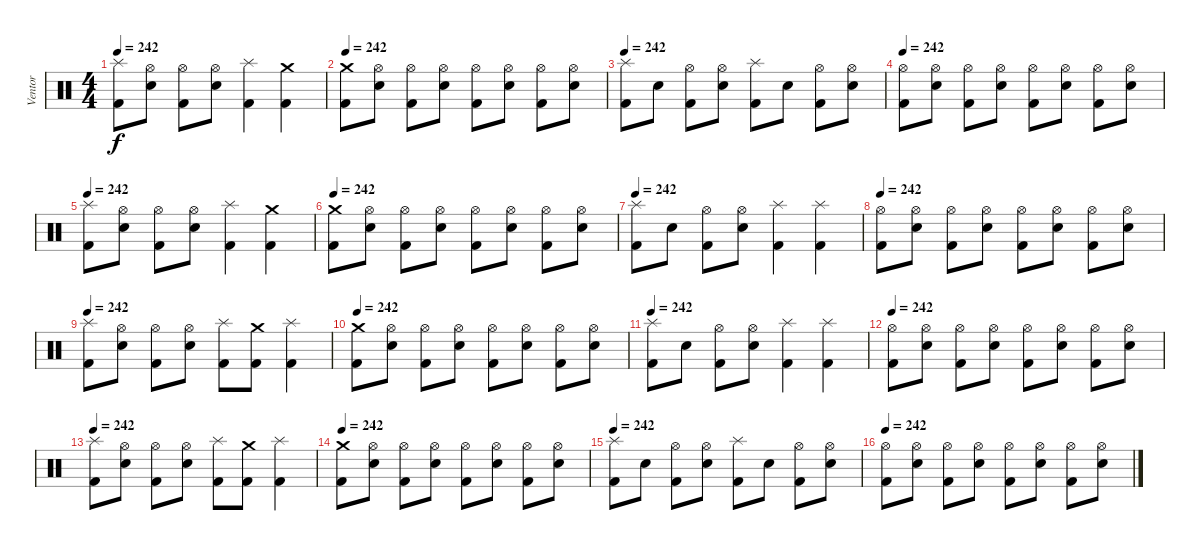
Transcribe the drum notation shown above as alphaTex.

\track ("Ventor" "Ventor") {instrument percussion}
\staff {score}
\articulation defaults
\ts (4 4)
\tempo 242
\clef neutral
\ks c
("Splash (hit)" "Kick (hit) 2").8{dy f} ("Hi-Hat (open)" "Snare (hit) 2").8 ("Hi-Hat (open)" "Kick (hit) 2").8 ("Hi-Hat (open)" "Snare (hit) 2").8 ("Splash (hit)" "Kick (hit) 2").4 ("Crash medium (hit)" "Kick (hit) 2").4 |
\tempo 242
("Crash medium (hit)" "Kick (hit) 2").8 ("Hi-Hat (open)" "Snare (hit) 2").8 ("Hi-Hat (open)" "Kick (hit) 2").8 ("Hi-Hat (open)" "Snare (hit) 2").8 ("Hi-Hat (open)" "Kick (hit) 2").8 ("Hi-Hat (open)" "Snare (hit) 2").8 ("Hi-Hat (open)" "Kick (hit) 2").8 ("Hi-Hat (open)" "Snare (hit) 2").8 |
\tempo 242
("Splash (hit)" "Kick (hit) 2").8 "Snare (hit) 2".8 ("Hi-Hat (open)" "Kick (hit) 2").8 ("Hi-Hat (open)" "Snare (hit) 2").8 ("Splash (hit)" "Kick (hit) 2").8 "Snare (hit) 2".8 ("Hi-Hat (open)" "Kick (hit) 2").8 ("Hi-Hat (open)" "Snare (hit) 2").8 |
\tempo 242
("Hi-Hat (open)" "Kick (hit) 2").8 ("Hi-Hat (open)" "Snare (hit) 2").8 ("Hi-Hat (open)" "Kick (hit) 2").8 ("Hi-Hat (open)" "Snare (hit) 2").8 ("Hi-Hat (open)" "Kick (hit) 2").8 ("Hi-Hat (open)" "Snare (hit) 2").8 ("Hi-Hat (open)" "Kick (hit) 2").8 ("Hi-Hat (open)" "Snare (hit) 2").8 |
\tempo 242
("Splash (hit)" "Kick (hit) 2").8 ("Hi-Hat (open)" "Snare (hit) 2").8 ("Hi-Hat (open)" "Kick (hit) 2").8 ("Hi-Hat (open)" "Snare (hit) 2").8 ("Splash (hit)" "Kick (hit) 2").4 ("Crash medium (hit)" "Kick (hit) 2").4 |
\tempo 242
("Crash medium (hit)" "Kick (hit) 2").8 ("Hi-Hat (open)" "Snare (hit) 2").8 ("Hi-Hat (open)" "Kick (hit) 2").8 ("Hi-Hat (open)" "Snare (hit) 2").8 ("Hi-Hat (open)" "Kick (hit) 2").8 ("Hi-Hat (open)" "Snare (hit) 2").8 ("Hi-Hat (open)" "Kick (hit) 2").8 ("Hi-Hat (open)" "Snare (hit) 2").8 |
\tempo 242
("Splash (hit)" "Kick (hit) 2").8 "Snare (hit) 2".8 ("Hi-Hat (open)" "Kick (hit) 2").8 ("Hi-Hat (open)" "Snare (hit) 2").8 ("Splash (hit)" "Kick (hit) 2").4 ("Splash (hit)" "Kick (hit) 2").4 |
\tempo 242
("Hi-Hat (open)" "Kick (hit) 2").8 ("Hi-Hat (open)" "Snare (hit) 2").8 ("Hi-Hat (open)" "Kick (hit) 2").8 ("Hi-Hat (open)" "Snare (hit) 2").8 ("Hi-Hat (open)" "Kick (hit) 2").8 ("Hi-Hat (open)" "Snare (hit) 2").8 ("Hi-Hat (open)" "Kick (hit) 2").8 ("Hi-Hat (open)" "Snare (hit) 2").8 |
\tempo 242
("Splash (hit)" "Kick (hit) 2").8 ("Hi-Hat (open)" "Snare (hit) 2").8 ("Hi-Hat (open)" "Kick (hit) 2").8 ("Hi-Hat (open)" "Snare (hit) 2").8 ("Splash (hit)" "Kick (hit) 2").8 ("Crash medium (hit)" "Kick (hit) 2").8 ("Splash (hit)" "Kick (hit) 2").4 |
\tempo 242
("Crash medium (hit)" "Kick (hit) 2").8 ("Hi-Hat (open)" "Snare (hit) 2").8 ("Hi-Hat (open)" "Kick (hit) 2").8 ("Hi-Hat (open)" "Snare (hit) 2").8 ("Hi-Hat (open)" "Kick (hit) 2").8 ("Hi-Hat (open)" "Snare (hit) 2").8 ("Hi-Hat (open)" "Kick (hit) 2").8 ("Hi-Hat (open)" "Snare (hit) 2").8 |
\tempo 242
("Splash (hit)" "Kick (hit) 2").8 "Snare (hit) 2".8 ("Hi-Hat (open)" "Kick (hit) 2").8 ("Hi-Hat (open)" "Snare (hit) 2").8 ("Splash (hit)" "Kick (hit) 2").4 ("Splash (hit)" "Kick (hit) 2").4 |
\tempo 242
("Hi-Hat (open)" "Kick (hit) 2").8 ("Hi-Hat (open)" "Snare (hit) 2").8 ("Hi-Hat (open)" "Kick (hit) 2").8 ("Hi-Hat (open)" "Snare (hit) 2").8 ("Hi-Hat (open)" "Kick (hit) 2").8 ("Hi-Hat (open)" "Snare (hit) 2").8 ("Hi-Hat (open)" "Kick (hit) 2").8 ("Hi-Hat (open)" "Snare (hit) 2").8 |
\tempo 242
("Splash (hit)" "Kick (hit) 2").8 ("Hi-Hat (open)" "Snare (hit) 2").8 ("Hi-Hat (open)" "Kick (hit) 2").8 ("Hi-Hat (open)" "Snare (hit) 2").8 ("Splash (hit)" "Kick (hit) 2").8 ("Crash medium (hit)" "Kick (hit) 2").8 ("Splash (hit)" "Kick (hit) 2").4 |
\tempo 242
("Crash medium (hit)" "Kick (hit) 2").8 ("Hi-Hat (open)" "Snare (hit) 2").8 ("Hi-Hat (open)" "Kick (hit) 2").8 ("Hi-Hat (open)" "Snare (hit) 2").8 ("Hi-Hat (open)" "Kick (hit) 2").8 ("Hi-Hat (open)" "Snare (hit) 2").8 ("Hi-Hat (open)" "Kick (hit) 2").8 ("Hi-Hat (open)" "Snare (hit) 2").8 |
\tempo 242
("Splash (hit)" "Kick (hit) 2").8 "Snare (hit) 2".8 ("Hi-Hat (open)" "Kick (hit) 2").8 ("Hi-Hat (open)" "Snare (hit) 2").8 ("Splash (hit)" "Kick (hit) 2").8 "Snare (hit) 2".8 ("Hi-Hat (open)" "Kick (hit) 2").8 ("Hi-Hat (open)" "Snare (hit) 2").8 |
\tempo 242
("Hi-Hat (open)" "Kick (hit) 2").8 ("Hi-Hat (open)" "Snare (hit) 2").8 ("Hi-Hat (open)" "Kick (hit) 2").8 ("Hi-Hat (open)" "Snare (hit) 2").8 ("Hi-Hat (open)" "Kick (hit) 2").8 ("Hi-Hat (open)" "Snare (hit) 2").8 ("Hi-Hat (open)" "Kick (hit) 2").8 ("Hi-Hat (open)" "Snare (hit) 2").8
